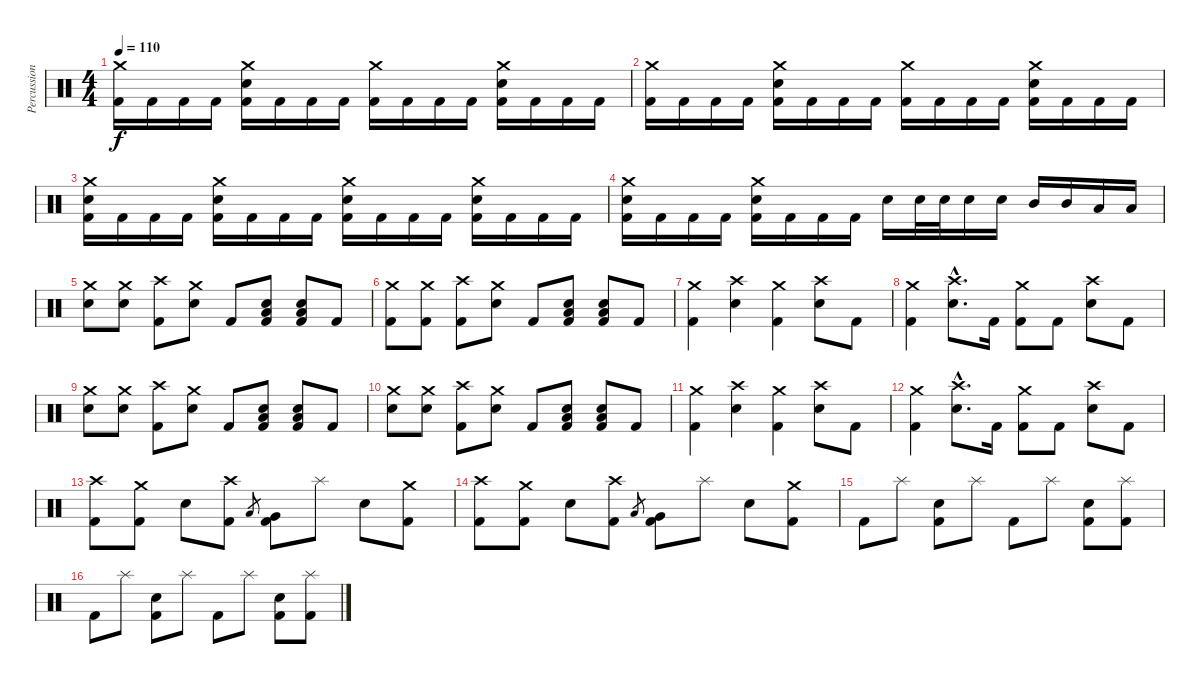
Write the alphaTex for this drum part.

\track ("Percussion" "Percussion") {instrument percussion}
\staff {score}
\articulation defaults
\ts (4 4)
\tempo 110
\clef neutral
\ks c
("Crash medium (hit)" "Kick (hit) 2").16{dy f} "Kick (hit) 2".16 "Kick (hit) 2".16 "Kick (hit) 2".16 ("Crash medium (hit)" "Electric Snare (hit)" "Kick (hit) 2").16 "Kick (hit) 2".16 "Kick (hit) 2".16 "Kick (hit) 2".16 ("Crash medium (hit)" "Kick (hit) 2").16 "Kick (hit) 2".16 "Kick (hit) 2".16 "Kick (hit) 2".16 ("Crash medium (hit)" "Electric Snare (hit)" "Kick (hit) 2").16 "Kick (hit) 2".16 "Kick (hit) 2".16 "Kick (hit) 2".16 |
("Crash medium (hit)" "Kick (hit) 2").16 "Kick (hit) 2".16 "Kick (hit) 2".16 "Kick (hit) 2".16 ("Crash medium (hit)" "Electric Snare (hit)" "Kick (hit) 2").16 "Kick (hit) 2".16 "Kick (hit) 2".16 "Kick (hit) 2".16 ("Crash medium (hit)" "Kick (hit) 2").16 "Kick (hit) 2".16 "Kick (hit) 2".16 "Kick (hit) 2".16 ("Crash medium (hit)" "Electric Snare (hit)" "Kick (hit) 2").16 "Kick (hit) 2".16 "Kick (hit) 2".16 "Kick (hit) 2".16 |
("Crash medium (hit)" "Electric Snare (hit)" "Kick (hit) 2").16 "Kick (hit) 2".16 "Kick (hit) 2".16 "Kick (hit) 2".16 ("Crash medium (hit)" "Electric Snare (hit)" "Kick (hit) 2").16 "Kick (hit) 2".16 "Kick (hit) 2".16 "Kick (hit) 2".16 ("Crash medium (hit)" "Electric Snare (hit)" "Kick (hit) 2").16 "Kick (hit) 2".16 "Kick (hit) 2".16 "Kick (hit) 2".16 ("Crash medium (hit)" "Electric Snare (hit)" "Kick (hit) 2").16 "Kick (hit) 2".16 "Kick (hit) 2".16 "Kick (hit) 2".16 |
("Crash medium (hit)" "Electric Snare (hit)" "Kick (hit) 2").16 "Kick (hit) 2".16 "Kick (hit) 2".16 "Kick (hit) 2".16 ("Crash medium (hit)" "Electric Snare (hit)" "Kick (hit) 2").16 "Kick (hit) 2".16 "Kick (hit) 2".16 "Kick (hit) 2".16 "Electric Snare (hit)".16 "Electric Snare (hit)".32 "Electric Snare (hit)".32 "Electric Snare (hit)".16 "Electric Snare (hit)".16 "Mid Tom (hit)".16 "Mid Tom (hit)".16 "Low Tom (hit)".16 "Low Tom (hit)".16 |
("Crash medium (hit)" "Electric Snare (hit)").8 ("Crash medium (hit)" "Electric Snare (hit)").8 ("Crash high (hit)" "Kick (hit) 2").8 ("Crash medium (hit)" "Electric Snare (hit)").8 "Kick (hit) 2".8 ("Electric Snare (hit)" "Low Floor Tom (hit)" "Kick (hit) 2").8 ("Electric Snare (hit)" "Low Floor Tom (hit)" "Kick (hit) 2").8 "Kick (hit) 2".8 |
("Crash medium (hit)" "Kick (hit) 2").8 ("Crash medium (hit)" "Kick (hit) 2").8 ("Crash high (hit)" "Kick (hit) 2").8 ("Crash medium (hit)" "Electric Snare (hit)").8 "Kick (hit) 2".8 ("Electric Snare (hit)" "Low Floor Tom (hit)" "Kick (hit) 2").8 ("Electric Snare (hit)" "Low Floor Tom (hit)" "Kick (hit) 2").8 "Kick (hit) 2".8 |
("Crash medium (hit)" "Kick (hit) 2").4 ("Crash high (hit)" "Electric Snare (hit)").4 ("Crash medium (hit)" "Kick (hit) 2").4 ("Crash high (hit)" "Electric Snare (hit)").8 "Kick (hit) 2".8 |
("Crash medium (hit)" "Kick (hit) 2").4 ("Crash high (hit)"{hac} "Electric Snare (hit)"{hac}).8{d} "Kick (hit) 2".16 ("Crash medium (hit)" "Kick (hit) 2").8 "Kick (hit) 2".8 ("Crash high (hit)" "Electric Snare (hit)").8 "Kick (hit) 2".8 |
("Crash medium (hit)" "Electric Snare (hit)").8 ("Crash medium (hit)" "Electric Snare (hit)").8 ("Crash high (hit)" "Kick (hit) 2").8 ("Crash medium (hit)" "Electric Snare (hit)").8 "Kick (hit) 2".8 ("Electric Snare (hit)" "Low Floor Tom (hit)" "Kick (hit) 2").8 ("Electric Snare (hit)" "Low Floor Tom (hit)" "Kick (hit) 2").8 "Kick (hit) 2".8 |
("Crash medium (hit)" "Electric Snare (hit)").8 ("Crash medium (hit)" "Electric Snare (hit)").8 ("Crash high (hit)" "Kick (hit) 2").8 ("Crash medium (hit)" "Electric Snare (hit)").8 "Kick (hit) 2".8 ("Electric Snare (hit)" "Low Floor Tom (hit)" "Kick (hit) 2").8 ("Electric Snare (hit)" "Low Floor Tom (hit)" "Kick (hit) 2").8 "Kick (hit) 2".8 |
("Crash medium (hit)" "Kick (hit) 2").4 ("Crash high (hit)" "Electric Snare (hit)").4 ("Crash medium (hit)" "Kick (hit) 2").4 ("Crash high (hit)" "Electric Snare (hit)").8 "Kick (hit) 2".8 |
("Crash medium (hit)" "Kick (hit) 2").4 ("Crash high (hit)"{hac} "Electric Snare (hit)"{hac}).8{d} "Kick (hit) 2".16 ("Crash medium (hit)" "Kick (hit) 2").8 "Kick (hit) 2".8 ("Crash high (hit)" "Electric Snare (hit)").8 "Kick (hit) 2".8 |
("Crash high (hit)" "Kick (hit) 2").8 ("Crash medium (hit)" "Kick (hit) 2").8 "Electric Snare (hit)".8 ("Crash high (hit)" "Kick (hit) 2").8 "Low Tom (hit)".8{gr} ("Very Low Tom (hit)" "Kick (hit) 2").8 "Splash (hit)".8 "Electric Snare (hit)".8 ("Crash medium (hit)" "Kick (hit) 2").8 |
("Crash high (hit)" "Kick (hit) 2").8 ("Crash medium (hit)" "Kick (hit) 2").8 "Electric Snare (hit)".8 ("Crash high (hit)" "Kick (hit) 2").8 "Low Tom (hit)".8{gr} ("Very Low Tom (hit)" "Kick (hit) 2").8 "Splash (hit)".8 "Electric Snare (hit)".8 ("Crash medium (hit)" "Kick (hit) 2").8 |
"Kick (hit) 2".8 "Splash (hit)".8 ("Electric Snare (hit)" "Kick (hit) 2").8 "Splash (hit)".8 "Kick (hit) 2".8 "Splash (hit)".8 ("Electric Snare (hit)" "Kick (hit) 2").8 ("Splash (hit)" "Kick (hit) 2").8 |
"Kick (hit) 2".8 "Splash (hit)".8 ("Electric Snare (hit)" "Kick (hit) 2").8 "Splash (hit)".8 "Kick (hit) 2".8 "Splash (hit)".8 ("Electric Snare (hit)" "Kick (hit) 2").8 ("Splash (hit)" "Kick (hit) 2").8
